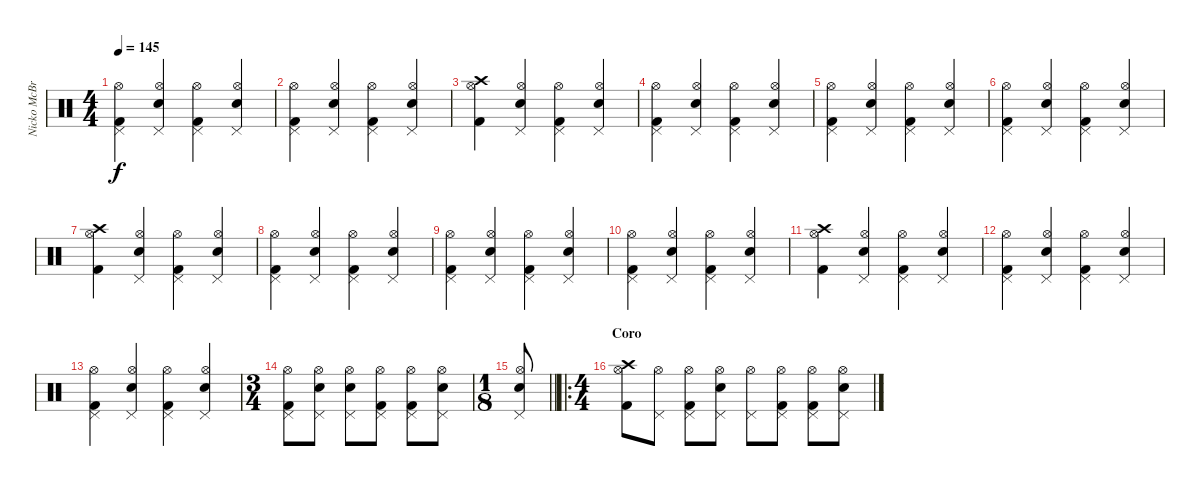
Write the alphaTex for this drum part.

\track ("Nicko McBrain" "Nicko McBr") {instrument percussion}
\staff {score}
\articulation defaults
\ts (4 4)
\tempo 145
\clef neutral
\ks c
("Kick (hit) 2" "Pedal Hi-Hat (hit)" "Hi-Hat (open)").4{dy f} ("Snare (hit) 2" "Pedal Hi-Hat (hit)" "Hi-Hat (open)").4 ("Kick (hit) 2" "Pedal Hi-Hat (hit)" "Hi-Hat (open)").4 ("Snare (hit) 2" "Pedal Hi-Hat (hit)" "Hi-Hat (open)").4 |
("Kick (hit) 2" "Pedal Hi-Hat (hit)" "Hi-Hat (open)").4 ("Snare (hit) 2" "Pedal Hi-Hat (hit)" "Hi-Hat (open)").4 ("Kick (hit) 2" "Pedal Hi-Hat (hit)" "Hi-Hat (open)").4 ("Snare (hit) 2" "Pedal Hi-Hat (hit)" "Hi-Hat (open)").4 |
("Kick (hit) 2" "Hi-Hat (open)" "Crash high (hit)").4 ("Snare (hit) 2" "Pedal Hi-Hat (hit)" "Hi-Hat (open)").4 ("Kick (hit) 2" "Pedal Hi-Hat (hit)" "Hi-Hat (open)").4 ("Snare (hit) 2" "Pedal Hi-Hat (hit)" "Hi-Hat (open)").4 |
("Kick (hit) 2" "Pedal Hi-Hat (hit)" "Hi-Hat (open)").4 ("Snare (hit) 2" "Pedal Hi-Hat (hit)" "Hi-Hat (open)").4 ("Kick (hit) 2" "Pedal Hi-Hat (hit)" "Hi-Hat (open)").4 ("Snare (hit) 2" "Pedal Hi-Hat (hit)" "Hi-Hat (open)").4 |
("Kick (hit) 2" "Pedal Hi-Hat (hit)" "Hi-Hat (open)").4 ("Snare (hit) 2" "Pedal Hi-Hat (hit)" "Hi-Hat (open)").4 ("Kick (hit) 2" "Pedal Hi-Hat (hit)" "Hi-Hat (open)").4 ("Snare (hit) 2" "Pedal Hi-Hat (hit)" "Hi-Hat (open)").4 |
("Kick (hit) 2" "Pedal Hi-Hat (hit)" "Hi-Hat (open)").4 ("Snare (hit) 2" "Pedal Hi-Hat (hit)" "Hi-Hat (open)").4 ("Kick (hit) 2" "Pedal Hi-Hat (hit)" "Hi-Hat (open)").4 ("Snare (hit) 2" "Pedal Hi-Hat (hit)" "Hi-Hat (open)").4 |
("Kick (hit) 2" "Hi-Hat (open)" "Crash high (hit)").4 ("Snare (hit) 2" "Pedal Hi-Hat (hit)" "Hi-Hat (open)").4 ("Kick (hit) 2" "Pedal Hi-Hat (hit)" "Hi-Hat (open)").4 ("Snare (hit) 2" "Pedal Hi-Hat (hit)" "Hi-Hat (open)").4 |
("Kick (hit) 2" "Pedal Hi-Hat (hit)" "Hi-Hat (open)").4 ("Snare (hit) 2" "Pedal Hi-Hat (hit)" "Hi-Hat (open)").4 ("Kick (hit) 2" "Pedal Hi-Hat (hit)" "Hi-Hat (open)").4 ("Snare (hit) 2" "Pedal Hi-Hat (hit)" "Hi-Hat (open)").4 |
("Kick (hit) 2" "Pedal Hi-Hat (hit)" "Hi-Hat (open)").4 ("Snare (hit) 2" "Pedal Hi-Hat (hit)" "Hi-Hat (open)").4 ("Kick (hit) 2" "Pedal Hi-Hat (hit)" "Hi-Hat (open)").4 ("Snare (hit) 2" "Pedal Hi-Hat (hit)" "Hi-Hat (open)").4 |
("Kick (hit) 2" "Pedal Hi-Hat (hit)" "Hi-Hat (open)").4 ("Snare (hit) 2" "Pedal Hi-Hat (hit)" "Hi-Hat (open)").4 ("Kick (hit) 2" "Pedal Hi-Hat (hit)" "Hi-Hat (open)").4 ("Snare (hit) 2" "Pedal Hi-Hat (hit)" "Hi-Hat (open)").4 |
("Kick (hit) 2" "Hi-Hat (open)" "Crash high (hit)").4 ("Snare (hit) 2" "Pedal Hi-Hat (hit)" "Hi-Hat (open)").4 ("Kick (hit) 2" "Pedal Hi-Hat (hit)" "Hi-Hat (open)").4 ("Snare (hit) 2" "Pedal Hi-Hat (hit)" "Hi-Hat (open)").4 |
("Kick (hit) 2" "Pedal Hi-Hat (hit)" "Hi-Hat (open)").4 ("Snare (hit) 2" "Pedal Hi-Hat (hit)" "Hi-Hat (open)").4 ("Kick (hit) 2" "Pedal Hi-Hat (hit)" "Hi-Hat (open)").4 ("Snare (hit) 2" "Pedal Hi-Hat (hit)" "Hi-Hat (open)").4 |
("Kick (hit) 2" "Pedal Hi-Hat (hit)" "Hi-Hat (open)").4 ("Snare (hit) 2" "Pedal Hi-Hat (hit)" "Hi-Hat (open)").4 ("Kick (hit) 2" "Pedal Hi-Hat (hit)" "Hi-Hat (open)").4 ("Snare (hit) 2" "Pedal Hi-Hat (hit)" "Hi-Hat (open)").4 |
\ts (3 4)
("Kick (hit) 2" "Pedal Hi-Hat (hit)" "Hi-Hat (open)").8 ("Snare (hit) 2" "Pedal Hi-Hat (hit)" "Hi-Hat (open)").8 ("Snare (hit) 2" "Pedal Hi-Hat (hit)" "Hi-Hat (open)").8 ("Kick (hit) 2" "Pedal Hi-Hat (hit)" "Hi-Hat (open)").8 ("Kick (hit) 2" "Pedal Hi-Hat (hit)" "Hi-Hat (open)").8 ("Snare (hit) 2" "Pedal Hi-Hat (hit)" "Hi-Hat (open)").8 |
\ts (1 8)
\barLineRight lightlight
("Snare (hit) 2" "Pedal Hi-Hat (hit)" "Hi-Hat (open)").8 |
\ro
\ts (4 4)
\section ("" "Coro")
("Kick (hit) 2" "Hi-Hat (open)" "Crash high (hit)").8 ("Pedal Hi-Hat (hit)" "Hi-Hat (open)").8 ("Kick (hit) 2" "Pedal Hi-Hat (hit)" "Hi-Hat (open)").8 ("Snare (hit) 2" "Pedal Hi-Hat (hit)" "Hi-Hat (open)").8 ("Pedal Hi-Hat (hit)" "Hi-Hat (open)").8 ("Kick (hit) 2" "Pedal Hi-Hat (hit)" "Hi-Hat (open)").8 ("Kick (hit) 2" "Pedal Hi-Hat (hit)" "Hi-Hat (open)").8 ("Snare (hit) 2" "Pedal Hi-Hat (hit)" "Hi-Hat (open)").8
